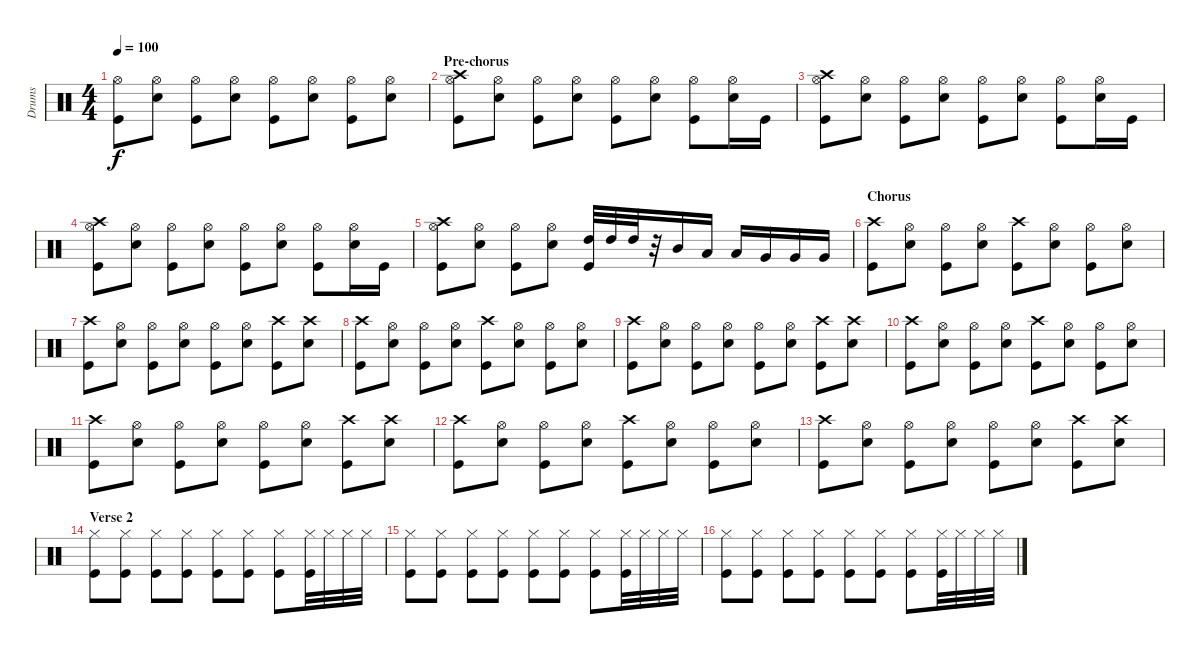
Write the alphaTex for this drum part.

\track ("Drums" "Drums") {instrument percussion}
\staff {score}
\articulation defaults
\ts (4 4)
\tempo 100
\clef neutral
\ks c
("Hi-Hat (open)" "Kick (hit)").8{dy f} ("Hi-Hat (open)" "Snare (hit) 2").8 ("Hi-Hat (open)" "Kick (hit)").8 ("Hi-Hat (open)" "Snare (hit) 2").8 ("Hi-Hat (open)" "Kick (hit)").8 ("Hi-Hat (open)" "Snare (hit) 2").8 ("Hi-Hat (open)" "Kick (hit)").8 ("Hi-Hat (open)" "Snare (hit) 2").8 |
\section ("" "Pre-chorus")
("Hi-Hat (open)" "Crash high (hit)" "Kick (hit)").8 ("Hi-Hat (open)" "Snare (hit) 2").8 ("Hi-Hat (open)" "Kick (hit)").8 ("Hi-Hat (open)" "Snare (hit) 2").8 ("Hi-Hat (open)" "Kick (hit)").8 ("Hi-Hat (open)" "Snare (hit) 2").8 ("Hi-Hat (open)" "Kick (hit)").8 ("Hi-Hat (open)" "Snare (hit) 2").16 "Kick (hit)".16 |
("Hi-Hat (open)" "Crash high (hit)" "Kick (hit)").8 ("Hi-Hat (open)" "Snare (hit) 2").8 ("Hi-Hat (open)" "Kick (hit)").8 ("Hi-Hat (open)" "Snare (hit) 2").8 ("Hi-Hat (open)" "Kick (hit)").8 ("Hi-Hat (open)" "Snare (hit) 2").8 ("Hi-Hat (open)" "Kick (hit)").8 ("Hi-Hat (open)" "Snare (hit) 2").16 "Kick (hit)".16 |
("Hi-Hat (open)" "Crash high (hit)" "Kick (hit)").8 ("Hi-Hat (open)" "Snare (hit) 2").8 ("Hi-Hat (open)" "Kick (hit)").8 ("Hi-Hat (open)" "Snare (hit) 2").8 ("Hi-Hat (open)" "Kick (hit)").8 ("Hi-Hat (open)" "Snare (hit) 2").8 ("Hi-Hat (open)" "Kick (hit)").8 ("Hi-Hat (open)" "Snare (hit) 2").16 "Kick (hit)".16 |
("Hi-Hat (open)" "Crash high (hit)" "Kick (hit)").8 ("Hi-Hat (open)" "Snare (hit) 2").8 ("Hi-Hat (open)" "Kick (hit)").8 ("Hi-Hat (open)" "Snare (hit) 2").8 ("High Tom (hit)" "Kick (hit)").32 "High Tom (hit)".32 "High Tom (hit)".32 r.32 "Mid Tom (hit)".16 "Low Tom (hit)".16 "Low Tom (hit)".16 "Very Low Tom (hit)".16 "Very Low Tom (hit)".16 "Very Low Tom (hit)".16 |
\section ("" "Chorus")
("Crash high (hit)" "Kick (hit)").8 ("Hi-Hat (open)" "Snare (hit) 2").8 ("Hi-Hat (open)" "Kick (hit)").8 ("Hi-Hat (open)" "Snare (hit) 2").8 ("Crash high (hit)" "Kick (hit)").8 ("Hi-Hat (open)" "Snare (hit) 2").8 ("Hi-Hat (open)" "Kick (hit)").8 ("Hi-Hat (open)" "Snare (hit) 2").8 |
("Crash high (hit)" "Kick (hit)").8 ("Hi-Hat (open)" "Snare (hit) 2").8 ("Hi-Hat (open)" "Kick (hit)").8 ("Hi-Hat (open)" "Snare (hit) 2").8 ("Hi-Hat (open)" "Kick (hit)").8 ("Hi-Hat (open)" "Snare (hit) 2").8 ("Crash high (hit)" "Kick (hit)").8 ("Crash high (hit)" "Snare (hit) 2").8 |
("Crash high (hit)" "Kick (hit)").8 ("Hi-Hat (open)" "Snare (hit) 2").8 ("Hi-Hat (open)" "Kick (hit)").8 ("Hi-Hat (open)" "Snare (hit) 2").8 ("Crash high (hit)" "Kick (hit)").8 ("Hi-Hat (open)" "Snare (hit) 2").8 ("Hi-Hat (open)" "Kick (hit)").8 ("Hi-Hat (open)" "Snare (hit) 2").8 |
("Crash high (hit)" "Kick (hit)").8 ("Hi-Hat (open)" "Snare (hit) 2").8 ("Hi-Hat (open)" "Kick (hit)").8 ("Hi-Hat (open)" "Snare (hit) 2").8 ("Hi-Hat (open)" "Kick (hit)").8 ("Hi-Hat (open)" "Snare (hit) 2").8 ("Crash high (hit)" "Kick (hit)").8 ("Crash high (hit)" "Snare (hit) 2").8 |
("Crash high (hit)" "Kick (hit)").8 ("Hi-Hat (open)" "Snare (hit) 2").8 ("Hi-Hat (open)" "Kick (hit)").8 ("Hi-Hat (open)" "Snare (hit) 2").8 ("Crash high (hit)" "Kick (hit)").8 ("Hi-Hat (open)" "Snare (hit) 2").8 ("Hi-Hat (open)" "Kick (hit)").8 ("Hi-Hat (open)" "Snare (hit) 2").8 |
("Crash high (hit)" "Kick (hit)").8 ("Hi-Hat (open)" "Snare (hit) 2").8 ("Hi-Hat (open)" "Kick (hit)").8 ("Hi-Hat (open)" "Snare (hit) 2").8 ("Hi-Hat (open)" "Kick (hit)").8 ("Hi-Hat (open)" "Snare (hit) 2").8 ("Crash high (hit)" "Kick (hit)").8 ("Crash high (hit)" "Snare (hit) 2").8 |
("Crash high (hit)" "Kick (hit)").8 ("Hi-Hat (open)" "Snare (hit) 2").8 ("Hi-Hat (open)" "Kick (hit)").8 ("Hi-Hat (open)" "Snare (hit) 2").8 ("Crash high (hit)" "Kick (hit)").8 ("Hi-Hat (open)" "Snare (hit) 2").8 ("Hi-Hat (open)" "Kick (hit)").8 ("Hi-Hat (open)" "Snare (hit) 2").8 |
("Crash high (hit)" "Kick (hit)").8 ("Hi-Hat (open)" "Snare (hit) 2").8 ("Hi-Hat (open)" "Kick (hit)").8 ("Hi-Hat (open)" "Snare (hit) 2").8 ("Hi-Hat (open)" "Kick (hit)").8 ("Hi-Hat (open)" "Snare (hit) 2").8 ("Crash high (hit)" "Kick (hit)").8 ("Crash high (hit)" "Snare (hit) 2").8 |
\section ("" "Verse 2")
("Hi-Hat (closed)" "Kick (hit)").8 ("Hi-Hat (closed)" "Kick (hit)").8 ("Hi-Hat (closed)" "Kick (hit)").8 ("Hi-Hat (closed)" "Kick (hit)").8 ("Hi-Hat (closed)" "Kick (hit)").8 ("Hi-Hat (closed)" "Kick (hit)").8 ("Hi-Hat (closed)" "Kick (hit)").8 ("Hi-Hat (closed)" "Kick (hit)").32 "Hi-Hat (closed)".32 "Hi-Hat (closed)".32 "Hi-Hat (closed)".32 |
("Hi-Hat (closed)" "Kick (hit)").8 ("Hi-Hat (closed)" "Kick (hit)").8 ("Hi-Hat (closed)" "Kick (hit)").8 ("Hi-Hat (closed)" "Kick (hit)").8 ("Hi-Hat (closed)" "Kick (hit)").8 ("Hi-Hat (closed)" "Kick (hit)").8 ("Hi-Hat (closed)" "Kick (hit)").8 ("Hi-Hat (closed)" "Kick (hit)").32 "Hi-Hat (closed)".32 "Hi-Hat (closed)".32 "Hi-Hat (closed)".32 |
("Hi-Hat (closed)" "Kick (hit)").8 ("Hi-Hat (closed)" "Kick (hit)").8 ("Hi-Hat (closed)" "Kick (hit)").8 ("Hi-Hat (closed)" "Kick (hit)").8 ("Hi-Hat (closed)" "Kick (hit)").8 ("Hi-Hat (closed)" "Kick (hit)").8 ("Hi-Hat (closed)" "Kick (hit)").8 ("Hi-Hat (closed)" "Kick (hit)").32 "Hi-Hat (closed)".32 "Hi-Hat (closed)".32 "Hi-Hat (closed)".32
